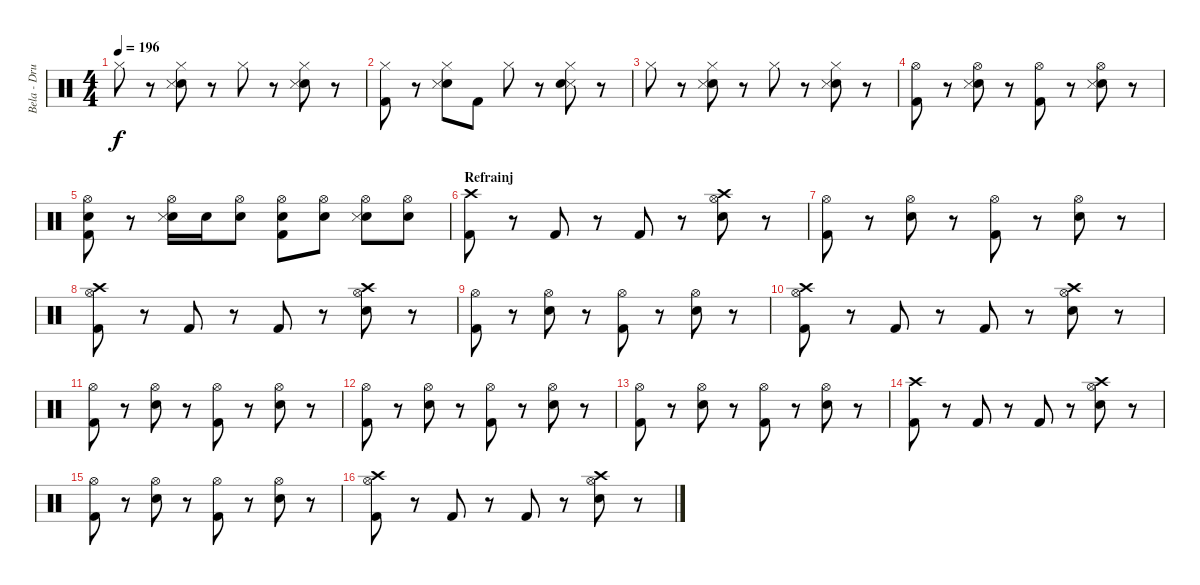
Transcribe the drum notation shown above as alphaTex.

\track ("Bela - Drums" "Bela - Dru") {instrument percussion}
\staff {score}
\articulation defaults
\ts (4 4)
\tempo 196
\clef neutral
\ks c "Hi-Hat (closed)".8{dy f}
r.8 ("Electric Snare (hit)" "Hi-Hat (closed)" "Snare (side stick) 3").8 r.8 "Hi-Hat (closed)".8 r.8 ("Electric Snare (hit)" "Hi-Hat (closed)" "Snare (side stick) 3").8 r.8 |
("Hi-Hat (closed)" "Kick (hit) 2").8 r.8 ("Electric Snare (hit)" "Hi-Hat (closed)" "Snare (side stick) 3").8 "Kick (hit) 2".8 "Hi-Hat (closed)".8 r.8 ("Hi-Hat (closed)" "Snare (side stick) 3" "Electric Snare (hit)").8 r.8 |
"Hi-Hat (closed)".8 r.8 ("Electric Snare (hit)" "Hi-Hat (closed)" "Snare (side stick) 3").8 r.8 "Hi-Hat (closed)".8 r.8 ("Electric Snare (hit)" "Hi-Hat (closed)" "Snare (side stick) 3").8 r.8 |
("Kick (hit) 2" "Hi-Hat (open)").8 r.8 ("Electric Snare (hit)" "Hi-Hat (open)" "Snare (side stick) 3").8 r.8 ("Hi-Hat (open)" "Kick (hit) 2").8 r.8 ("Electric Snare (hit)" "Hi-Hat (open)" "Snare (side stick) 3").8 r.8 |
("Hi-Hat (open)" "Kick (hit) 2" "Electric Snare (hit)").8 r.8 ("Hi-Hat (open)" "Electric Snare (hit)" "Snare (side stick) 3").16 "Electric Snare (hit)".16 ("Hi-Hat (open)" "Electric Snare (hit)").8 ("Hi-Hat (open)" "Kick (hit) 2" "Electric Snare (hit)").8 ("Hi-Hat (open)" "Electric Snare (hit)").8 ("Hi-Hat (open)" "Electric Snare (hit)" "Snare (side stick) 3").8 ("Hi-Hat (open)" "Electric Snare (hit)").8 |
\section ("" "Refrainj")
("Crash high (hit)" "Kick (hit) 2").8 r.8 "Kick (hit) 2".8 r.8 "Kick (hit) 2".8 r.8 ("Hi-Hat (open)" "Electric Snare (hit)" "Crash high (hit)").8 r.8 |
("Hi-Hat (open)" "Kick (hit) 2").8 r.8 ("Hi-Hat (open)" "Electric Snare (hit)").8 r.8 ("Hi-Hat (open)" "Kick (hit) 2").8 r.8 ("Hi-Hat (open)" "Electric Snare (hit)").8 r.8 |
("Crash high (hit)" "Kick (hit) 2" "Hi-Hat (open)").8 r.8 "Kick (hit) 2".8 r.8 "Kick (hit) 2".8 r.8 ("Crash high (hit)" "Electric Snare (hit)" "Hi-Hat (open)").8 r.8 |
("Kick (hit) 2" "Hi-Hat (open)").8 r.8 ("Electric Snare (hit)" "Hi-Hat (open)").8 r.8 ("Hi-Hat (open)" "Kick (hit) 2").8 r.8 ("Electric Snare (hit)" "Hi-Hat (open)").8 r.8 |
("Crash high (hit)" "Kick (hit) 2" "Hi-Hat (open)").8 r.8 "Kick (hit) 2".8 r.8 "Kick (hit) 2".8 r.8 ("Crash high (hit)" "Electric Snare (hit)" "Hi-Hat (open)").8 r.8 |
("Kick (hit) 2" "Hi-Hat (open)").8 r.8 ("Electric Snare (hit)" "Hi-Hat (open)").8 r.8 ("Hi-Hat (open)" "Kick (hit) 2").8 r.8 ("Electric Snare (hit)" "Hi-Hat (open)").8 r.8 |
("Kick (hit) 2" "Hi-Hat (open)").8 r.8 ("Electric Snare (hit)" "Hi-Hat (open)").8 r.8 ("Hi-Hat (open)" "Kick (hit) 2").8 r.8 ("Electric Snare (hit)" "Hi-Hat (open)").8 r.8 |
("Kick (hit) 2" "Hi-Hat (open)").8 r.8 ("Electric Snare (hit)" "Hi-Hat (open)").8 r.8 ("Hi-Hat (open)" "Kick (hit) 2").8 r.8 ("Electric Snare (hit)" "Hi-Hat (open)").8 r.8 |
("Crash high (hit)" "Kick (hit) 2").8 r.8 "Kick (hit) 2".8 r.8 "Kick (hit) 2".8 r.8 ("Hi-Hat (open)" "Electric Snare (hit)" "Crash high (hit)").8 r.8 |
("Hi-Hat (open)" "Kick (hit) 2").8 r.8 ("Hi-Hat (open)" "Electric Snare (hit)").8 r.8 ("Hi-Hat (open)" "Kick (hit) 2").8 r.8 ("Hi-Hat (open)" "Electric Snare (hit)").8 r.8 |
("Crash high (hit)" "Kick (hit) 2" "Hi-Hat (open)").8 r.8 "Kick (hit) 2".8 r.8 "Kick (hit) 2".8 r.8 ("Crash high (hit)" "Electric Snare (hit)" "Hi-Hat (open)").8 r.8
